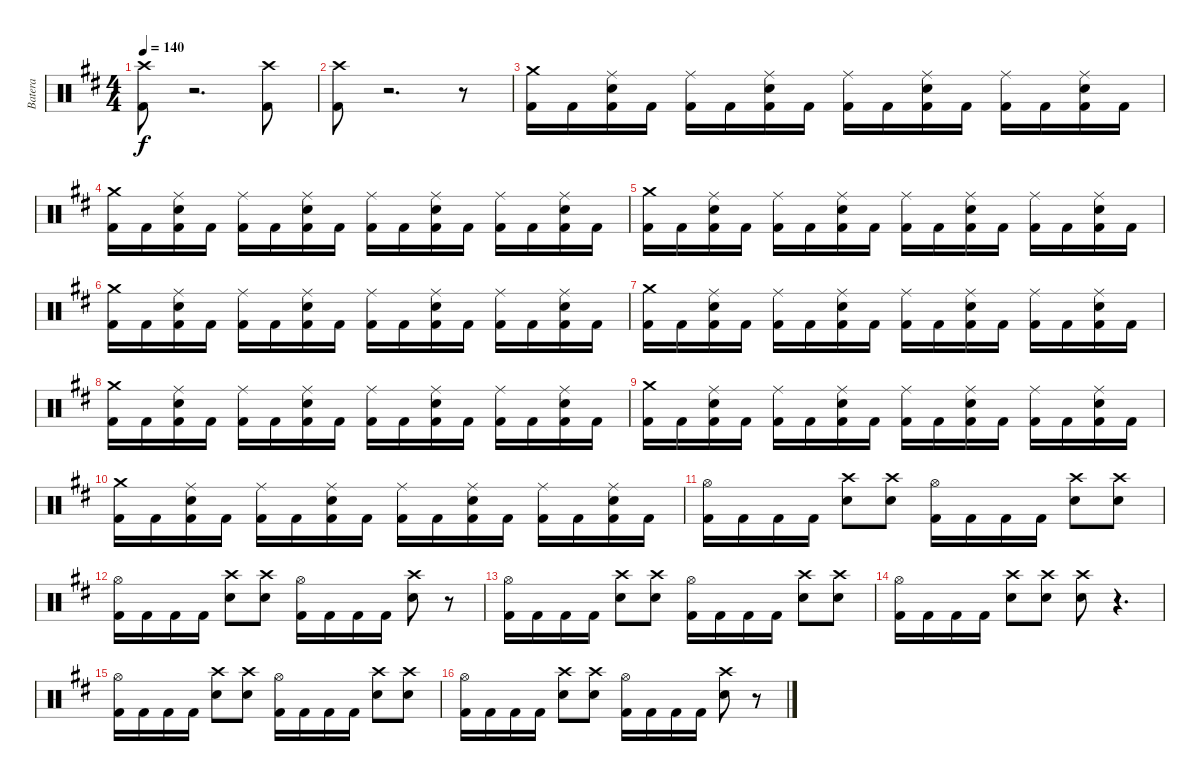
\track ("Batera" "Batera") {instrument percussion}
\staff {score}
\articulation defaults
\ts (4 4)
\tempo 140
\clef neutral
\ks bminor
("Crash high (hit)" "Kick (hit) 2").8{dy f} r.2{d} ("Crash high (hit)" "Kick (hit) 2").8 |
("Crash high (hit)" "Kick (hit) 2").8 r.2{d} r.8 |
("Crash medium (hit)" "Kick (hit) 2").16 "Kick (hit) 2".16 ("Ride (middle)" "Electric Snare (hit)" "Kick (hit) 2").16 "Kick (hit) 2".16 ("Ride (middle)" "Kick (hit) 2").16 "Kick (hit) 2".16 ("Ride (middle)" "Electric Snare (hit)" "Kick (hit) 2").16 "Kick (hit) 2".16 ("Ride (middle)" "Kick (hit) 2").16 "Kick (hit) 2".16 ("Ride (middle)" "Electric Snare (hit)" "Kick (hit) 2").16 "Kick (hit) 2".16 ("Ride (middle)" "Kick (hit) 2").16 "Kick (hit) 2".16 ("Ride (middle)" "Electric Snare (hit)" "Kick (hit) 2").16 "Kick (hit) 2".16 |
("Crash medium (hit)" "Kick (hit) 2").16 "Kick (hit) 2".16 ("Ride (middle)" "Electric Snare (hit)" "Kick (hit) 2").16 "Kick (hit) 2".16 ("Ride (middle)" "Kick (hit) 2").16 "Kick (hit) 2".16 ("Ride (middle)" "Electric Snare (hit)" "Kick (hit) 2").16 "Kick (hit) 2".16 ("Ride (middle)" "Kick (hit) 2").16 "Kick (hit) 2".16 ("Ride (middle)" "Electric Snare (hit)" "Kick (hit) 2").16 "Kick (hit) 2".16 ("Ride (middle)" "Kick (hit) 2").16 "Kick (hit) 2".16 ("Ride (middle)" "Electric Snare (hit)" "Kick (hit) 2").16 "Kick (hit) 2".16 |
("Crash medium (hit)" "Kick (hit) 2").16 "Kick (hit) 2".16 ("Ride (middle)" "Electric Snare (hit)" "Kick (hit) 2").16 "Kick (hit) 2".16 ("Ride (middle)" "Kick (hit) 2").16 "Kick (hit) 2".16 ("Ride (middle)" "Electric Snare (hit)" "Kick (hit) 2").16 "Kick (hit) 2".16 ("Ride (middle)" "Kick (hit) 2").16 "Kick (hit) 2".16 ("Ride (middle)" "Electric Snare (hit)" "Kick (hit) 2").16 "Kick (hit) 2".16 ("Ride (middle)" "Kick (hit) 2").16 "Kick (hit) 2".16 ("Ride (middle)" "Electric Snare (hit)" "Kick (hit) 2").16 "Kick (hit) 2".16 |
("Crash medium (hit)" "Kick (hit) 2").16 "Kick (hit) 2".16 ("Ride (middle)" "Electric Snare (hit)" "Kick (hit) 2").16 "Kick (hit) 2".16 ("Ride (middle)" "Kick (hit) 2").16 "Kick (hit) 2".16 ("Ride (middle)" "Electric Snare (hit)" "Kick (hit) 2").16 "Kick (hit) 2".16 ("Ride (middle)" "Kick (hit) 2").16 "Kick (hit) 2".16 ("Ride (middle)" "Electric Snare (hit)" "Kick (hit) 2").16 "Kick (hit) 2".16 ("Ride (middle)" "Kick (hit) 2").16 "Kick (hit) 2".16 ("Ride (middle)" "Electric Snare (hit)" "Kick (hit) 2").16 "Kick (hit) 2".16 |
("Crash medium (hit)" "Kick (hit) 2").16 "Kick (hit) 2".16 ("Ride (middle)" "Electric Snare (hit)" "Kick (hit) 2").16 "Kick (hit) 2".16 ("Ride (middle)" "Kick (hit) 2").16 "Kick (hit) 2".16 ("Ride (middle)" "Electric Snare (hit)" "Kick (hit) 2").16 "Kick (hit) 2".16 ("Ride (middle)" "Kick (hit) 2").16 "Kick (hit) 2".16 ("Ride (middle)" "Electric Snare (hit)" "Kick (hit) 2").16 "Kick (hit) 2".16 ("Ride (middle)" "Kick (hit) 2").16 "Kick (hit) 2".16 ("Ride (middle)" "Electric Snare (hit)" "Kick (hit) 2").16 "Kick (hit) 2".16 |
("Crash medium (hit)" "Kick (hit) 2").16 "Kick (hit) 2".16 ("Ride (middle)" "Electric Snare (hit)" "Kick (hit) 2").16 "Kick (hit) 2".16 ("Ride (middle)" "Kick (hit) 2").16 "Kick (hit) 2".16 ("Ride (middle)" "Electric Snare (hit)" "Kick (hit) 2").16 "Kick (hit) 2".16 ("Ride (middle)" "Kick (hit) 2").16 "Kick (hit) 2".16 ("Ride (middle)" "Electric Snare (hit)" "Kick (hit) 2").16 "Kick (hit) 2".16 ("Ride (middle)" "Kick (hit) 2").16 "Kick (hit) 2".16 ("Ride (middle)" "Electric Snare (hit)" "Kick (hit) 2").16 "Kick (hit) 2".16 |
("Crash medium (hit)" "Kick (hit) 2").16 "Kick (hit) 2".16 ("Ride (middle)" "Electric Snare (hit)" "Kick (hit) 2").16 "Kick (hit) 2".16 ("Ride (middle)" "Kick (hit) 2").16 "Kick (hit) 2".16 ("Ride (middle)" "Electric Snare (hit)" "Kick (hit) 2").16 "Kick (hit) 2".16 ("Ride (middle)" "Kick (hit) 2").16 "Kick (hit) 2".16 ("Ride (middle)" "Electric Snare (hit)" "Kick (hit) 2").16 "Kick (hit) 2".16 ("Ride (middle)" "Kick (hit) 2").16 "Kick (hit) 2".16 ("Ride (middle)" "Electric Snare (hit)" "Kick (hit) 2").16 "Kick (hit) 2".16 |
("Crash medium (hit)" "Kick (hit) 2").16 "Kick (hit) 2".16 ("Ride (middle)" "Electric Snare (hit)" "Kick (hit) 2").16 "Kick (hit) 2".16 ("Ride (middle)" "Kick (hit) 2").16 "Kick (hit) 2".16 ("Ride (middle)" "Electric Snare (hit)" "Kick (hit) 2").16 "Kick (hit) 2".16 ("Ride (middle)" "Kick (hit) 2").16 "Kick (hit) 2".16 ("Ride (middle)" "Electric Snare (hit)" "Kick (hit) 2").16 "Kick (hit) 2".16 ("Ride (middle)" "Kick (hit) 2").16 "Kick (hit) 2".16 ("Ride (middle)" "Electric Snare (hit)" "Kick (hit) 2").16 "Kick (hit) 2".16 |
("Hi-Hat (open)" "Kick (hit) 2").16 "Kick (hit) 2".16 "Kick (hit) 2".16 "Kick (hit) 2".16 ("Crash high (hit)" "Electric Snare (hit)").8 ("Crash high (hit)" "Electric Snare (hit)").8 ("Hi-Hat (open)" "Kick (hit) 2").16 "Kick (hit) 2".16 "Kick (hit) 2".16 "Kick (hit) 2".16 ("Crash high (hit)" "Electric Snare (hit)").8 ("Crash high (hit)" "Electric Snare (hit)").8 |
("Hi-Hat (open)" "Kick (hit) 2").16 "Kick (hit) 2".16 "Kick (hit) 2".16 "Kick (hit) 2".16 ("Crash high (hit)" "Electric Snare (hit)").8 ("Crash high (hit)" "Electric Snare (hit)").8 ("Hi-Hat (open)" "Kick (hit) 2").16 "Kick (hit) 2".16 "Kick (hit) 2".16 "Kick (hit) 2".16 ("Crash high (hit)" "Electric Snare (hit)").8 r.8 |
("Hi-Hat (open)" "Kick (hit) 2").16 "Kick (hit) 2".16 "Kick (hit) 2".16 "Kick (hit) 2".16 ("Crash high (hit)" "Electric Snare (hit)").8 ("Crash high (hit)" "Electric Snare (hit)").8 ("Hi-Hat (open)" "Kick (hit) 2").16 "Kick (hit) 2".16 "Kick (hit) 2".16 "Kick (hit) 2".16 ("Crash high (hit)" "Electric Snare (hit)").8 ("Crash high (hit)" "Electric Snare (hit)").8 |
("Hi-Hat (open)" "Kick (hit) 2").16 "Kick (hit) 2".16 "Kick (hit) 2".16 "Kick (hit) 2".16 ("Crash high (hit)" "Electric Snare (hit)").8 ("Crash high (hit)" "Electric Snare (hit)").8 ("Crash high (hit)" "Electric Snare (hit)").8 r.4{d} |
("Hi-Hat (open)" "Kick (hit) 2").16 "Kick (hit) 2".16 "Kick (hit) 2".16 "Kick (hit) 2".16 ("Crash high (hit)" "Electric Snare (hit)").8 ("Crash high (hit)" "Electric Snare (hit)").8 ("Hi-Hat (open)" "Kick (hit) 2").16 "Kick (hit) 2".16 "Kick (hit) 2".16 "Kick (hit) 2".16 ("Crash high (hit)" "Electric Snare (hit)").8 ("Crash high (hit)" "Electric Snare (hit)").8 |
("Hi-Hat (open)" "Kick (hit) 2").16 "Kick (hit) 2".16 "Kick (hit) 2".16 "Kick (hit) 2".16 ("Crash high (hit)" "Electric Snare (hit)").8 ("Crash high (hit)" "Electric Snare (hit)").8 ("Hi-Hat (open)" "Kick (hit) 2").16 "Kick (hit) 2".16 "Kick (hit) 2".16 "Kick (hit) 2".16 ("Crash high (hit)" "Electric Snare (hit)").8 r.8
